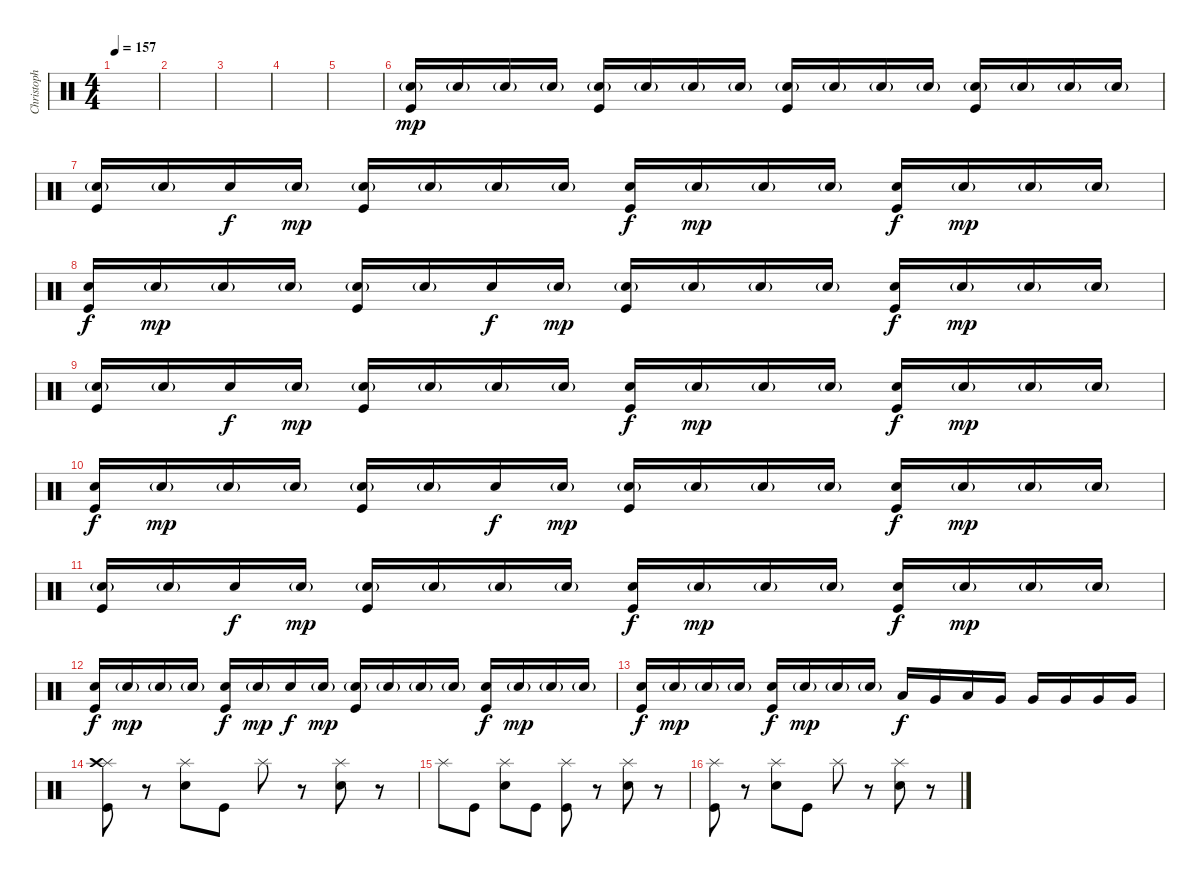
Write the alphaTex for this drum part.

\track ("Christoph" "Christoph") {instrument percussion}
\staff {score}
\articulation defaults
\ts (4 4)
\tempo 157
\clef neutral
\ks c
|
|
|
|
|
("Electric Snare (hit)"{g} "Kick (hit)").16{dy mp} "Electric Snare (hit)"{g}.16 "Electric Snare (hit)"{g}.16 "Electric Snare (hit)"{g}.16 ("Electric Snare (hit)"{g} "Kick (hit)").16 "Electric Snare (hit)"{g}.16 "Electric Snare (hit)"{g}.16 "Electric Snare (hit)"{g}.16 ("Electric Snare (hit)"{g} "Kick (hit)").16 "Electric Snare (hit)"{g}.16 "Electric Snare (hit)"{g}.16 "Electric Snare (hit)"{g}.16 ("Electric Snare (hit)"{g} "Kick (hit)").16 "Electric Snare (hit)"{g}.16 "Electric Snare (hit)"{g}.16 "Electric Snare (hit)"{g}.16 |
("Electric Snare (hit)"{g} "Kick (hit)").16 "Electric Snare (hit)"{g}.16 "Electric Snare (hit)".16{dy f} "Electric Snare (hit)"{g}.16{dy mp} ("Electric Snare (hit)"{g} "Kick (hit)").16 "Electric Snare (hit)"{g}.16 "Electric Snare (hit)"{g}.16 "Electric Snare (hit)"{g}.16 ("Electric Snare (hit)" "Kick (hit)").16{dy f} "Electric Snare (hit)"{g}.16{dy mp} "Electric Snare (hit)"{g}.16 "Electric Snare (hit)"{g}.16 ("Electric Snare (hit)" "Kick (hit)").16{dy f} "Electric Snare (hit)"{g}.16{dy mp} "Electric Snare (hit)"{g}.16 "Electric Snare (hit)"{g}.16 |
("Electric Snare (hit)" "Kick (hit)").16{dy f} "Electric Snare (hit)"{g}.16{dy mp} "Electric Snare (hit)"{g}.16 "Electric Snare (hit)"{g}.16 ("Electric Snare (hit)"{g} "Kick (hit)").16 "Electric Snare (hit)"{g}.16 "Electric Snare (hit)".16{dy f} "Electric Snare (hit)"{g}.16{dy mp} ("Electric Snare (hit)"{g} "Kick (hit)").16 "Electric Snare (hit)"{g}.16 "Electric Snare (hit)"{g}.16 "Electric Snare (hit)"{g}.16 ("Electric Snare (hit)" "Kick (hit)").16{dy f} "Electric Snare (hit)"{g}.16{dy mp} "Electric Snare (hit)"{g}.16 "Electric Snare (hit)"{g}.16 |
("Electric Snare (hit)"{g} "Kick (hit)").16 "Electric Snare (hit)"{g}.16 "Electric Snare (hit)".16{dy f} "Electric Snare (hit)"{g}.16{dy mp} ("Electric Snare (hit)"{g} "Kick (hit)").16 "Electric Snare (hit)"{g}.16 "Electric Snare (hit)"{g}.16 "Electric Snare (hit)"{g}.16 ("Electric Snare (hit)" "Kick (hit)").16{dy f} "Electric Snare (hit)"{g}.16{dy mp} "Electric Snare (hit)"{g}.16 "Electric Snare (hit)"{g}.16 ("Electric Snare (hit)" "Kick (hit)").16{dy f} "Electric Snare (hit)"{g}.16{dy mp} "Electric Snare (hit)"{g}.16 "Electric Snare (hit)"{g}.16 |
("Electric Snare (hit)" "Kick (hit)").16{dy f} "Electric Snare (hit)"{g}.16{dy mp} "Electric Snare (hit)"{g}.16 "Electric Snare (hit)"{g}.16 ("Electric Snare (hit)"{g} "Kick (hit)").16 "Electric Snare (hit)"{g}.16 "Electric Snare (hit)".16{dy f} "Electric Snare (hit)"{g}.16{dy mp} ("Electric Snare (hit)"{g} "Kick (hit)").16 "Electric Snare (hit)"{g}.16 "Electric Snare (hit)"{g}.16 "Electric Snare (hit)"{g}.16 ("Electric Snare (hit)" "Kick (hit)").16{dy f} "Electric Snare (hit)"{g}.16{dy mp} "Electric Snare (hit)"{g}.16 "Electric Snare (hit)"{g}.16 |
("Electric Snare (hit)"{g} "Kick (hit)").16 "Electric Snare (hit)"{g}.16 "Electric Snare (hit)".16{dy f} "Electric Snare (hit)"{g}.16{dy mp} ("Electric Snare (hit)"{g} "Kick (hit)").16 "Electric Snare (hit)"{g}.16 "Electric Snare (hit)"{g}.16 "Electric Snare (hit)"{g}.16 ("Electric Snare (hit)" "Kick (hit)").16{dy f} "Electric Snare (hit)"{g}.16{dy mp} "Electric Snare (hit)"{g}.16 "Electric Snare (hit)"{g}.16 ("Electric Snare (hit)" "Kick (hit)").16{dy f} "Electric Snare (hit)"{g}.16{dy mp} "Electric Snare (hit)"{g}.16 "Electric Snare (hit)"{g}.16 |
("Electric Snare (hit)" "Kick (hit)").16{dy f} "Electric Snare (hit)"{g}.16{dy mp} "Electric Snare (hit)"{g}.16 "Electric Snare (hit)"{g}.16 ("Electric Snare (hit)" "Kick (hit)").16{dy f} "Electric Snare (hit)"{g}.16{dy mp} "Electric Snare (hit)".16{dy f} "Electric Snare (hit)"{g}.16{dy mp} ("Electric Snare (hit)"{g} "Kick (hit)").16 "Electric Snare (hit)"{g}.16 "Electric Snare (hit)"{g}.16 "Electric Snare (hit)"{g}.16 ("Electric Snare (hit)" "Kick (hit)").16{dy f} "Electric Snare (hit)"{g}.16{dy mp} "Electric Snare (hit)"{g}.16 "Electric Snare (hit)"{g}.16 |
("Electric Snare (hit)" "Kick (hit)").16{dy f} "Electric Snare (hit)"{g}.16{dy mp} "Electric Snare (hit)"{g}.16 "Electric Snare (hit)"{g}.16 ("Electric Snare (hit)" "Kick (hit)").16{dy f} "Electric Snare (hit)"{g}.16{dy mp} "Electric Snare (hit)"{g}.16 "Electric Snare (hit)"{g}.16 "Low Tom (hit)".16{dy f} "Very Low Tom (hit)".16 "Low Tom (hit)".16 "Very Low Tom (hit)".16 "Very Low Tom (hit)".16 "Very Low Tom (hit)".16 "Very Low Tom (hit)".16 "Very Low Tom (hit)".16 |
("Splash (hit)" "Crash high (hit)" "Kick (hit)").8 r.8 ("Splash (hit)" "Snare (hit) 2").8 "Kick (hit)".8 "Splash (hit)".8 r.8 ("Splash (hit)" "Snare (hit) 2").8 r.8 |
"Splash (hit)".8 "Kick (hit)".8 ("Splash (hit)" "Snare (hit) 2").8 "Kick (hit)".8 ("Splash (hit)" "Kick (hit)").8 r.8 ("Splash (hit)" "Snare (hit) 2").8 r.8 |
("Splash (hit)" "Kick (hit)").8 r.8 ("Splash (hit)" "Snare (hit) 2").8 "Kick (hit)".8 "Splash (hit)".8 r.8 ("Splash (hit)" "Snare (hit) 2").8 r.8
